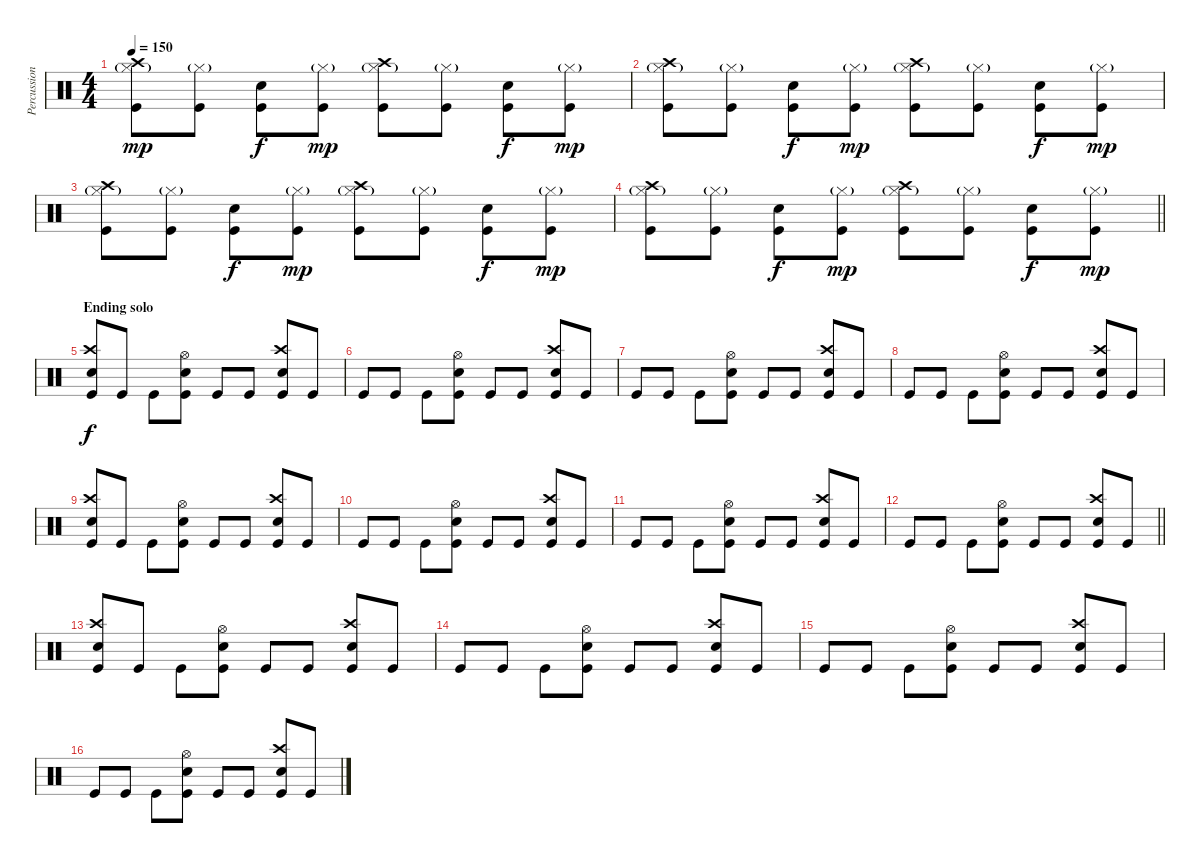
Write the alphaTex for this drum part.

\track ("Percussion" "Percussion") {instrument percussion}
\staff {score}
\articulation defaults
\ts (4 4)
\tempo 150
\clef neutral
\ks c
("Kick (hit)" "Hi-Hat (closed)"{g} "Crash high (hit)").8{dy mp} ("Kick (hit)" "Hi-Hat (closed)"{g}).8 ("Kick (hit)" "Snare (hit) 2").8{dy f} ("Kick (hit)" "Hi-Hat (closed)"{g}).8{dy mp} ("Kick (hit)" "Hi-Hat (closed)"{g} "Crash high (hit)").8 ("Kick (hit)" "Hi-Hat (closed)"{g}).8 ("Kick (hit)" "Snare (hit) 2").8{dy f} ("Kick (hit)" "Hi-Hat (closed)"{g}).8{dy mp} |
("Kick (hit)" "Hi-Hat (closed)"{g} "Crash high (hit)").8 ("Kick (hit)" "Hi-Hat (closed)"{g}).8 ("Kick (hit)" "Snare (hit) 2").8{dy f} ("Kick (hit)" "Hi-Hat (closed)"{g}).8{dy mp} ("Kick (hit)" "Hi-Hat (closed)"{g} "Crash high (hit)").8 ("Kick (hit)" "Hi-Hat (closed)"{g}).8 ("Kick (hit)" "Snare (hit) 2").8{dy f} ("Kick (hit)" "Hi-Hat (closed)"{g}).8{dy mp} |
("Kick (hit)" "Hi-Hat (closed)"{g} "Crash high (hit)").8 ("Kick (hit)" "Hi-Hat (closed)"{g}).8 ("Kick (hit)" "Snare (hit) 2").8{dy f} ("Kick (hit)" "Hi-Hat (closed)"{g}).8{dy mp} ("Kick (hit)" "Hi-Hat (closed)"{g} "Crash high (hit)").8 ("Kick (hit)" "Hi-Hat (closed)"{g}).8 ("Kick (hit)" "Snare (hit) 2").8{dy f} ("Kick (hit)" "Hi-Hat (closed)"{g}).8{dy mp} |
\barLineRight lightlight
("Kick (hit)" "Hi-Hat (closed)"{g} "Crash high (hit)").8 ("Kick (hit)" "Hi-Hat (closed)"{g}).8 ("Kick (hit)" "Snare (hit) 2").8{dy f} ("Kick (hit)" "Hi-Hat (closed)"{g}).8{dy mp} ("Kick (hit)" "Hi-Hat (closed)"{g} "Crash high (hit)").8 ("Kick (hit)" "Hi-Hat (closed)"{g}).8 ("Kick (hit)" "Snare (hit) 2").8{dy f} ("Kick (hit)" "Hi-Hat (closed)"{g}).8{dy mp} |
\section ("" "Ending solo")
("Kick (hit)" "Crash high (hit)" "Snare (hit) 2").8{dy f} "Kick (hit)".8 "Kick (hit)".8 ("Kick (hit)" "Snare (hit) 2" "Hi-Hat (open)").8 "Kick (hit)".8 "Kick (hit)".8 ("Snare (hit) 2" "Kick (hit)" "Crash high (hit)").8 "Kick (hit)".8 |
"Kick (hit)".8 "Kick (hit)".8 "Kick (hit)".8 ("Kick (hit)" "Snare (hit) 2" "Hi-Hat (open)").8 "Kick (hit)".8 "Kick (hit)".8 ("Kick (hit)" "Snare (hit) 2" "Crash high (hit)").8 "Kick (hit)".8 |
"Kick (hit)".8 "Kick (hit)".8 "Kick (hit)".8 ("Kick (hit)" "Snare (hit) 2" "Hi-Hat (open)").8 "Kick (hit)".8 "Kick (hit)".8 ("Kick (hit)" "Snare (hit) 2" "Crash high (hit)").8 "Kick (hit)".8 |
"Kick (hit)".8 "Kick (hit)".8 "Kick (hit)".8 ("Kick (hit)" "Snare (hit) 2" "Hi-Hat (open)").8 "Kick (hit)".8 "Kick (hit)".8 ("Kick (hit)" "Snare (hit) 2" "Crash high (hit)").8 "Kick (hit)".8 |
("Kick (hit)" "Crash high (hit)" "Snare (hit) 2").8 "Kick (hit)".8 "Kick (hit)".8 ("Kick (hit)" "Snare (hit) 2" "Hi-Hat (open)").8 "Kick (hit)".8 "Kick (hit)".8 ("Snare (hit) 2" "Kick (hit)" "Crash high (hit)").8 "Kick (hit)".8 |
"Kick (hit)".8 "Kick (hit)".8 "Kick (hit)".8 ("Kick (hit)" "Snare (hit) 2" "Hi-Hat (open)").8 "Kick (hit)".8 "Kick (hit)".8 ("Kick (hit)" "Snare (hit) 2" "Crash high (hit)").8 "Kick (hit)".8 |
"Kick (hit)".8 "Kick (hit)".8 "Kick (hit)".8 ("Kick (hit)" "Snare (hit) 2" "Hi-Hat (open)").8 "Kick (hit)".8 "Kick (hit)".8 ("Kick (hit)" "Snare (hit) 2" "Crash high (hit)").8 "Kick (hit)".8 |
\barLineRight lightlight "Kick (hit)".8 "Kick (hit)".8 "Kick (hit)".8
("Kick (hit)" "Snare (hit) 2" "Hi-Hat (open)").8 "Kick (hit)".8 "Kick (hit)".8 ("Kick (hit)" "Snare (hit) 2" "Crash high (hit)").8 "Kick (hit)".8 |
("Kick (hit)" "Crash high (hit)" "Snare (hit) 2").8 "Kick (hit)".8 "Kick (hit)".8 ("Kick (hit)" "Snare (hit) 2" "Hi-Hat (open)").8 "Kick (hit)".8 "Kick (hit)".8 ("Snare (hit) 2" "Kick (hit)" "Crash high (hit)").8 "Kick (hit)".8 |
"Kick (hit)".8 "Kick (hit)".8 "Kick (hit)".8 ("Kick (hit)" "Snare (hit) 2" "Hi-Hat (open)").8 "Kick (hit)".8 "Kick (hit)".8 ("Kick (hit)" "Snare (hit) 2" "Crash high (hit)").8 "Kick (hit)".8 |
"Kick (hit)".8 "Kick (hit)".8 "Kick (hit)".8 ("Kick (hit)" "Snare (hit) 2" "Hi-Hat (open)").8 "Kick (hit)".8 "Kick (hit)".8 ("Kick (hit)" "Snare (hit) 2" "Crash high (hit)").8 "Kick (hit)".8 |
"Kick (hit)".8 "Kick (hit)".8 "Kick (hit)".8 ("Kick (hit)" "Snare (hit) 2" "Hi-Hat (open)").8 "Kick (hit)".8 "Kick (hit)".8 ("Kick (hit)" "Snare (hit) 2" "Crash high (hit)").8 "Kick (hit)".8
